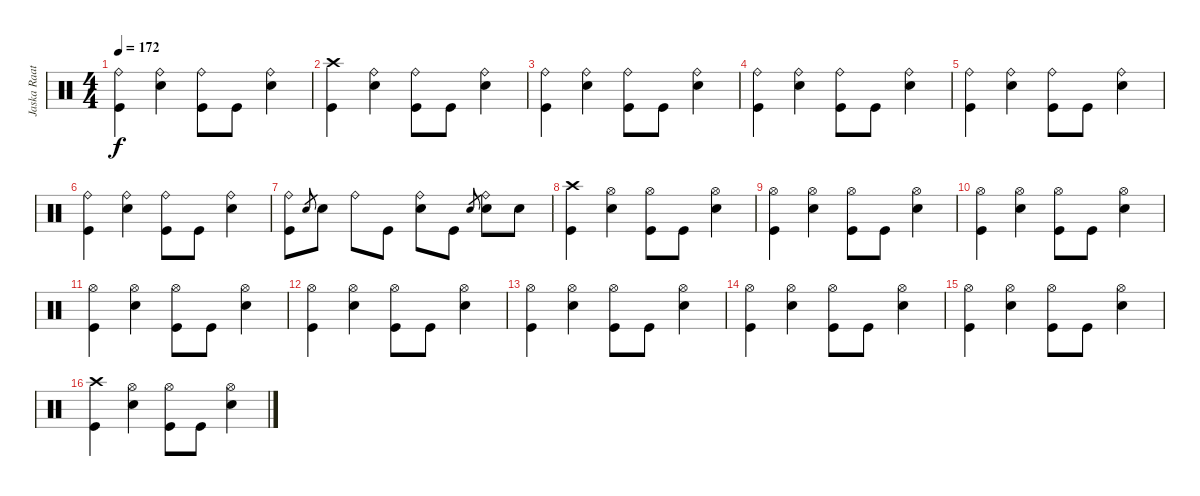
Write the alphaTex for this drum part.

\track ("Jaska Raatikainen" "Jaska Raat") {instrument percussion}
\staff {score}
\articulation defaults
\ts (4 4)
\tempo 172
\clef neutral
\ks c
("Ride (bell)" "Kick (hit)").4{dy f} ("Ride (bell)" "Snare (hit) 2").4 ("Ride (bell)" "Kick (hit)").8 "Kick (hit)".8 ("Ride (bell)" "Snare (hit) 2").4 |
("Crash high (hit)" "Kick (hit)").4 ("Ride (bell)" "Snare (hit) 2").4 ("Ride (bell)" "Kick (hit)").8 "Kick (hit)".8 ("Ride (bell)" "Snare (hit) 2").4 |
("Ride (bell)" "Kick (hit)").4 ("Ride (bell)" "Snare (hit) 2").4 ("Ride (bell)" "Kick (hit)").8 "Kick (hit)".8 ("Ride (bell)" "Snare (hit) 2").4 |
("Ride (bell)" "Kick (hit)").4 ("Ride (bell)" "Snare (hit) 2").4 ("Ride (bell)" "Kick (hit)").8 "Kick (hit)".8 ("Ride (bell)" "Snare (hit) 2").4 |
("Ride (bell)" "Kick (hit)").4 ("Ride (bell)" "Snare (hit) 2").4 ("Ride (bell)" "Kick (hit)").8 "Kick (hit)".8 ("Ride (bell)" "Snare (hit) 2").4 |
("Ride (bell)" "Kick (hit)").4 ("Ride (bell)" "Snare (hit) 2").4 ("Ride (bell)" "Kick (hit)").8 "Kick (hit)".8 ("Ride (bell)" "Snare (hit) 2").4 |
("Ride (bell)" "Kick (hit)").8 "Snare (hit) 2".8{gr} "Snare (hit) 2".8 "Ride (bell)".8 "Kick (hit)".8 ("Ride (bell)" "Snare (hit) 2").8 "Kick (hit)".8 "Snare (hit) 2".8{gr} ("Ride (bell)" "Snare (hit) 2").8 "Snare (hit) 2".8 |
("Crash high (hit)" "Kick (hit)").4 ("Hi-Hat (open)" "Snare (hit) 2").4 ("Hi-Hat (open)" "Kick (hit)").8 "Kick (hit)".8 ("Hi-Hat (open)" "Snare (hit) 2").4 |
("Hi-Hat (open)" "Kick (hit)").4 ("Hi-Hat (open)" "Snare (hit) 2").4 ("Hi-Hat (open)" "Kick (hit)").8 "Kick (hit)".8 ("Hi-Hat (open)" "Snare (hit) 2").4 |
("Hi-Hat (open)" "Kick (hit)").4 ("Hi-Hat (open)" "Snare (hit) 2").4 ("Hi-Hat (open)" "Kick (hit)").8 "Kick (hit)".8 ("Hi-Hat (open)" "Snare (hit) 2").4 |
("Hi-Hat (open)" "Kick (hit)").4 ("Hi-Hat (open)" "Snare (hit) 2").4 ("Hi-Hat (open)" "Kick (hit)").8 "Kick (hit)".8 ("Hi-Hat (open)" "Snare (hit) 2").4 |
("Hi-Hat (open)" "Kick (hit)").4 ("Hi-Hat (open)" "Snare (hit) 2").4 ("Hi-Hat (open)" "Kick (hit)").8 "Kick (hit)".8 ("Hi-Hat (open)" "Snare (hit) 2").4 |
("Hi-Hat (open)" "Kick (hit)").4 ("Hi-Hat (open)" "Snare (hit) 2").4 ("Hi-Hat (open)" "Kick (hit)").8 "Kick (hit)".8 ("Hi-Hat (open)" "Snare (hit) 2").4 |
("Hi-Hat (open)" "Kick (hit)").4 ("Hi-Hat (open)" "Snare (hit) 2").4 ("Hi-Hat (open)" "Kick (hit)").8 "Kick (hit)".8 ("Hi-Hat (open)" "Snare (hit) 2").4 |
("Hi-Hat (open)" "Kick (hit)").4 ("Hi-Hat (open)" "Snare (hit) 2").4 ("Hi-Hat (open)" "Kick (hit)").8 "Kick (hit)".8 ("Hi-Hat (open)" "Snare (hit) 2").4 |
("Crash high (hit)" "Kick (hit)").4 ("Hi-Hat (open)" "Snare (hit) 2").4 ("Hi-Hat (open)" "Kick (hit)").8 "Kick (hit)".8 ("Hi-Hat (open)" "Snare (hit) 2").4
